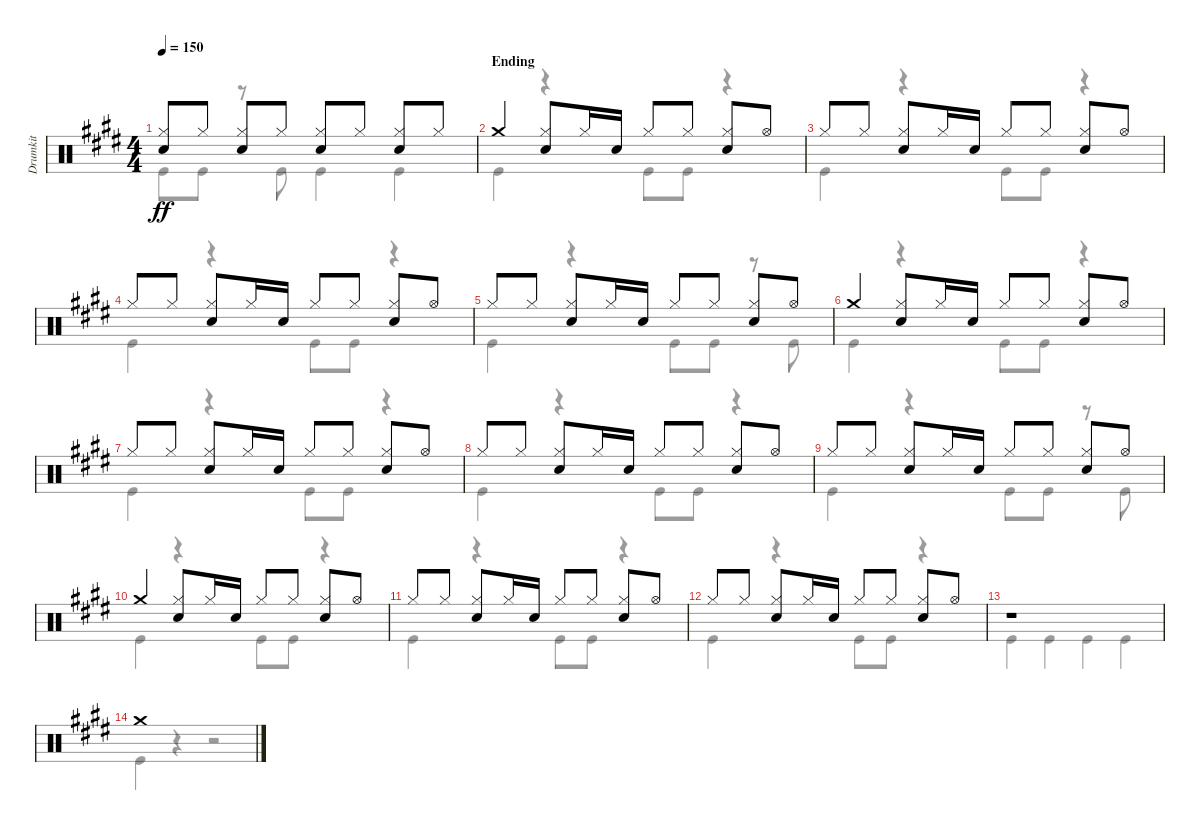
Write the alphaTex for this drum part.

\track ("Drumkit" "Drumkit") {instrument percussion}
\staff {score}
\articulation defaults
\voice
\ts (4 4)
\tempo 150
\clef neutral
\ks e
("Snare (hit) 2" "Hi-Hat (closed)").8{dy ff} "Hi-Hat (closed)".8 ("Hi-Hat (closed)" "Snare (hit) 2").8 "Hi-Hat (closed)".8 ("Hi-Hat (closed)" "Snare (hit) 2").8 "Hi-Hat (closed)".8 ("Hi-Hat (closed)" "Snare (hit) 2").8 "Hi-Hat (closed)".8 |
\section ("" "Ending")
"Crash medium (hit)".4 ("Hi-Hat (closed)" "Snare (hit) 2").8 "Hi-Hat (closed)".16 "Snare (hit) 2".16 "Hi-Hat (closed)".8 "Hi-Hat (closed)".8 ("Hi-Hat (closed)" "Snare (hit) 2").8 "Hi-Hat (open)".8 |
"Hi-Hat (closed)".8 "Hi-Hat (closed)".8 ("Hi-Hat (closed)" "Snare (hit) 2").8 "Hi-Hat (closed)".16 "Snare (hit) 2".16 "Hi-Hat (closed)".8 "Hi-Hat (closed)".8 ("Hi-Hat (closed)" "Snare (hit) 2").8 "Hi-Hat (open)".8 |
"Hi-Hat (closed)".8 "Hi-Hat (closed)".8 ("Hi-Hat (closed)" "Snare (hit) 2").8 "Hi-Hat (closed)".16 "Snare (hit) 2".16 "Hi-Hat (closed)".8 "Hi-Hat (closed)".8 ("Hi-Hat (closed)" "Snare (hit) 2").8 "Hi-Hat (open)".8 |
"Hi-Hat (closed)".8 "Hi-Hat (closed)".8 ("Hi-Hat (closed)" "Snare (hit) 2").8 "Hi-Hat (closed)".16 "Snare (hit) 2".16 "Hi-Hat (closed)".8 "Hi-Hat (closed)".8 ("Hi-Hat (closed)" "Snare (hit) 2").8 "Hi-Hat (open)".8 |
"Crash medium (hit)".4 ("Hi-Hat (closed)" "Snare (hit) 2").8 "Hi-Hat (closed)".16 "Snare (hit) 2".16 "Hi-Hat (closed)".8 "Hi-Hat (closed)".8 ("Hi-Hat (closed)" "Snare (hit) 2").8 "Hi-Hat (open)".8 |
"Hi-Hat (closed)".8 "Hi-Hat (closed)".8 ("Hi-Hat (closed)" "Snare (hit) 2").8 "Hi-Hat (closed)".16 "Snare (hit) 2".16 "Hi-Hat (closed)".8 "Hi-Hat (closed)".8 ("Hi-Hat (closed)" "Snare (hit) 2").8 "Hi-Hat (open)".8 |
"Hi-Hat (closed)".8 "Hi-Hat (closed)".8 ("Hi-Hat (closed)" "Snare (hit) 2").8 "Hi-Hat (closed)".16 "Snare (hit) 2".16 "Hi-Hat (closed)".8 "Hi-Hat (closed)".8 ("Hi-Hat (closed)" "Snare (hit) 2").8 "Hi-Hat (open)".8 |
"Hi-Hat (closed)".8 "Hi-Hat (closed)".8 ("Hi-Hat (closed)" "Snare (hit) 2").8 "Hi-Hat (closed)".16 "Snare (hit) 2".16 "Hi-Hat (closed)".8 "Hi-Hat (closed)".8 ("Hi-Hat (closed)" "Snare (hit) 2").8 "Hi-Hat (open)".8 |
"Crash medium (hit)".4 ("Hi-Hat (closed)" "Snare (hit) 2").8 "Hi-Hat (closed)".16 "Snare (hit) 2".16 "Hi-Hat (closed)".8 "Hi-Hat (closed)".8 ("Hi-Hat (closed)" "Snare (hit) 2").8 "Hi-Hat (open)".8 |
"Hi-Hat (closed)".8 "Hi-Hat (closed)".8 ("Hi-Hat (closed)" "Snare (hit) 2").8 "Hi-Hat (closed)".16 "Snare (hit) 2".16 "Hi-Hat (closed)".8 "Hi-Hat (closed)".8 ("Hi-Hat (closed)" "Snare (hit) 2").8 "Hi-Hat (open)".8 |
"Hi-Hat (closed)".8 "Hi-Hat (closed)".8 ("Hi-Hat (closed)" "Snare (hit) 2").8 "Hi-Hat (closed)".16 "Snare (hit) 2".16 "Hi-Hat (closed)".8 "Hi-Hat (closed)".8 ("Hi-Hat (closed)" "Snare (hit) 2").8 "Hi-Hat (open)".8 |
r.1 |
"Crash medium (hit)".1
\voice
\clef neutral
\ottava regular
\simile none
\ks e "Kick (hit)".8{dy ff} "Kick (hit)".8
r.8 "Kick (hit)".8 "Kick (hit)".4 "Kick (hit)".4 |
"Kick (hit)".4 r.4 "Kick (hit)".8 "Kick (hit)".8 r.4 |
"Kick (hit)".4 r.4 "Kick (hit)".8 "Kick (hit)".8 r.4 |
"Kick (hit)".4 r.4 "Kick (hit)".8 "Kick (hit)".8 r.4 |
"Kick (hit)".4 r.4 "Kick (hit)".8 "Kick (hit)".8 r.8 "Kick (hit)".8 |
"Kick (hit)".4 r.4 "Kick (hit)".8 "Kick (hit)".8 r.4 |
"Kick (hit)".4 r.4 "Kick (hit)".8 "Kick (hit)".8 r.4 |
"Kick (hit)".4 r.4 "Kick (hit)".8 "Kick (hit)".8 r.4 |
"Kick (hit)".4 r.4 "Kick (hit)".8 "Kick (hit)".8 r.8 "Kick (hit)".8 |
"Kick (hit)".4 r.4 "Kick (hit)".8 "Kick (hit)".8 r.4 |
"Kick (hit)".4 r.4 "Kick (hit)".8 "Kick (hit)".8 r.4 |
"Kick (hit)".4 r.4 "Kick (hit)".8 "Kick (hit)".8 r.4 |
"Kick (hit)".4 "Kick (hit)".4 "Kick (hit)".4 "Kick (hit)".4 |
"Kick (hit)".4 r.4 r.2
